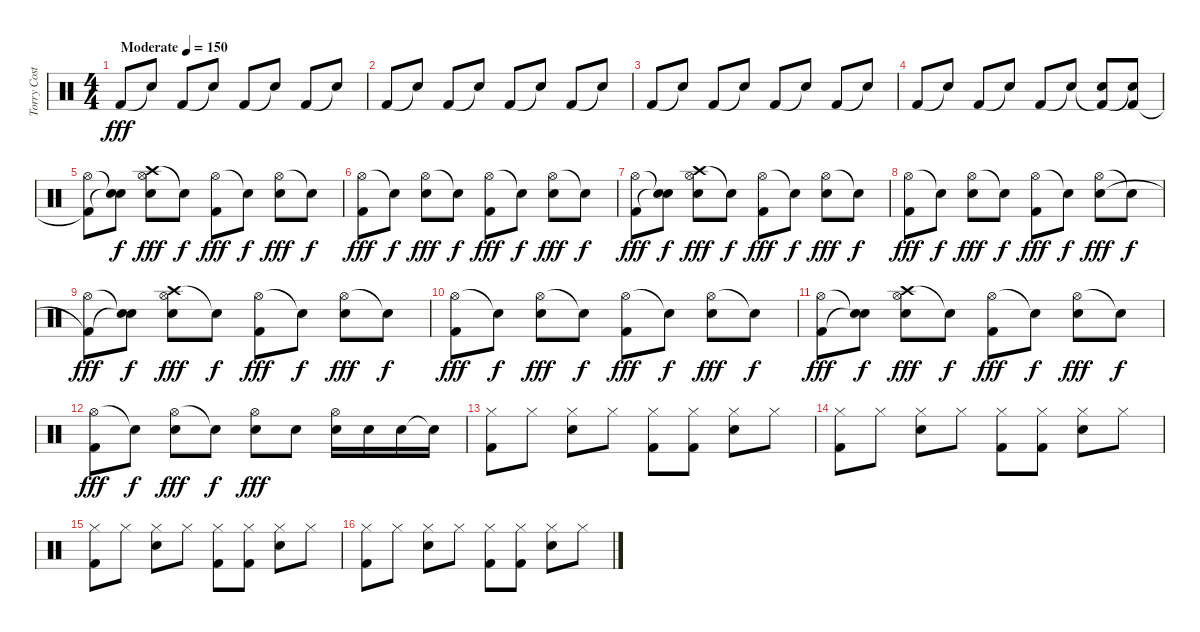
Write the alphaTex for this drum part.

\track ("Torry Costellano" "Torry Cost") {instrument percussion}
\staff {score}
\articulation defaults
\ts (4 4)
\tempo (150 "Moderate")
\clef neutral
\ks c "Kick (hit) 2".8{dy fff} "Snare (hit)"{t}.8 "Kick (hit) 2".8 "Snare (hit)"{t}.8 "Kick (hit) 2".8 "Snare (hit)"{t}.8 "Kick (hit) 2".8 "Snare (hit)"{t}.8
|
"Kick (hit) 2".8 "Snare (hit)"{t}.8 "Kick (hit) 2".8 "Snare (hit)"{t}.8 "Kick (hit) 2".8 "Snare (hit)"{t}.8 "Kick (hit) 2".8 "Snare (hit)"{t}.8 |
"Kick (hit) 2".8 "Snare (hit)"{t}.8 "Kick (hit) 2".8 "Snare (hit)"{t}.8 "Kick (hit) 2".8 "Snare (hit)"{t}.8 "Kick (hit) 2".8 "Snare (hit)"{t}.8 |
"Kick (hit) 2".8 "Snare (hit)"{t}.8 "Kick (hit) 2".8 "Snare (hit)"{t}.8 "Kick (hit) 2".8 "Snare (hit)"{t}.8 ("Kick (hit) 2"{t} "Electric Snare (hit)").8 ("Snare (hit)"{t} "Kick (hit) 2").8 |
("Hi-Hat (open)" "Kick (hit) 2"{t}).8 ("Snare (hit)"{t} "Snare (hit)"{t}).8{dy f} ("Crash high (hit)" "Hi-Hat (open)" "Electric Snare (hit)").8{dy fff} "Snare (hit)"{t}.8{dy f} ("Hi-Hat (open)" "Kick (hit) 2").8{dy fff} "Snare (hit)"{t}.8{dy f} ("Hi-Hat (open)" "Electric Snare (hit)").8{dy fff} "Snare (hit)"{t}.8{dy f} |
("Hi-Hat (open)" "Kick (hit) 2").8{dy fff} "Snare (hit)"{t}.8{dy f} ("Hi-Hat (open)" "Electric Snare (hit)").8{dy fff} "Snare (hit)"{t}.8{dy f} ("Hi-Hat (open)" "Kick (hit) 2").8{dy fff} "Snare (hit)"{t}.8{dy f} ("Hi-Hat (open)" "Electric Snare (hit)").8{dy fff} "Snare (hit)"{t}.8{dy f} |
("Hi-Hat (open)" "Kick (hit) 2").8{dy fff} ("Snare (hit)"{t} "Snare (hit)"{t}).8{dy f} ("Crash high (hit)" "Hi-Hat (open)" "Electric Snare (hit)").8{dy fff} "Snare (hit)"{t}.8{dy f} ("Hi-Hat (open)" "Kick (hit) 2").8{dy fff} "Snare (hit)"{t}.8{dy f} ("Hi-Hat (open)" "Electric Snare (hit)").8{dy fff} "Snare (hit)"{t}.8{dy f} |
("Hi-Hat (open)" "Kick (hit) 2").8{dy fff} "Snare (hit)"{t}.8{dy f} ("Hi-Hat (open)" "Electric Snare (hit)").8{dy fff} "Snare (hit)"{t}.8{dy f} ("Hi-Hat (open)" "Kick (hit) 2").8{dy fff} "Snare (hit)"{t}.8{dy f} ("Hi-Hat (open)" "Electric Snare (hit)").8{dy fff} "Snare (hit)"{t}.8{dy f} |
("Hi-Hat (open)" "Kick (hit) 2"{t}).8{dy fff} ("Snare (hit)"{t} "Snare (hit)"{t}).8{dy f} ("Crash high (hit)" "Hi-Hat (open)" "Electric Snare (hit)").8{dy fff} "Snare (hit)"{t}.8{dy f} ("Hi-Hat (open)" "Kick (hit) 2").8{dy fff} "Snare (hit)"{t}.8{dy f} ("Hi-Hat (open)" "Electric Snare (hit)").8{dy fff} "Snare (hit)"{t}.8{dy f} |
("Hi-Hat (open)" "Kick (hit) 2").8{dy fff} "Snare (hit)"{t}.8{dy f} ("Hi-Hat (open)" "Electric Snare (hit)").8{dy fff} "Snare (hit)"{t}.8{dy f} ("Hi-Hat (open)" "Kick (hit) 2").8{dy fff} "Snare (hit)"{t}.8{dy f} ("Hi-Hat (open)" "Electric Snare (hit)").8{dy fff} "Snare (hit)"{t}.8{dy f} |
("Hi-Hat (open)" "Kick (hit) 2").8{dy fff} ("Snare (hit)"{t} "Snare (hit)"{t}).8{dy f} ("Crash high (hit)" "Hi-Hat (open)" "Electric Snare (hit)").8{dy fff} "Snare (hit)"{t}.8{dy f} ("Hi-Hat (open)" "Kick (hit) 2").8{dy fff} "Snare (hit)"{t}.8{dy f} ("Hi-Hat (open)" "Electric Snare (hit)").8{dy fff} "Snare (hit)"{t}.8{dy f} |
("Hi-Hat (open)" "Kick (hit) 2").8{dy fff} "Snare (hit)"{t}.8{dy f} ("Hi-Hat (open)" "Electric Snare (hit)").8{dy fff} "Snare (hit)"{t}.8{dy f} ("Hi-Hat (open)" "Electric Snare (hit)").8{dy fff} "Electric Snare (hit)".8 ("Hi-Hat (open)" "Electric Snare (hit)").16 "Electric Snare (hit)".16 "Electric Snare (hit)".16 "Snare (hit)"{t}.16 |
("Hi-Hat (closed)" "Kick (hit) 2").8 "Hi-Hat (closed)".8 ("Hi-Hat (closed)" "Electric Snare (hit)").8 "Hi-Hat (closed)".8 ("Hi-Hat (closed)" "Kick (hit) 2").8 ("Hi-Hat (closed)" "Kick (hit) 2").8 ("Hi-Hat (closed)" "Electric Snare (hit)").8 "Hi-Hat (closed)".8 |
("Hi-Hat (closed)" "Kick (hit) 2").8 "Hi-Hat (closed)".8 ("Hi-Hat (closed)" "Electric Snare (hit)").8 "Hi-Hat (closed)".8 ("Hi-Hat (closed)" "Kick (hit) 2").8 ("Hi-Hat (closed)" "Kick (hit) 2").8 ("Hi-Hat (closed)" "Electric Snare (hit)").8 "Hi-Hat (closed)".8 |
("Hi-Hat (closed)" "Kick (hit) 2").8 "Hi-Hat (closed)".8 ("Hi-Hat (closed)" "Electric Snare (hit)").8 "Hi-Hat (closed)".8 ("Hi-Hat (closed)" "Kick (hit) 2").8 ("Hi-Hat (closed)" "Kick (hit) 2").8 ("Hi-Hat (closed)" "Electric Snare (hit)").8 "Hi-Hat (closed)".8 |
("Hi-Hat (closed)" "Kick (hit) 2").8 "Hi-Hat (closed)".8 ("Hi-Hat (closed)" "Electric Snare (hit)").8 "Hi-Hat (closed)".8 ("Hi-Hat (closed)" "Kick (hit) 2").8 ("Hi-Hat (closed)" "Kick (hit) 2").8 ("Hi-Hat (closed)" "Electric Snare (hit)").8 "Hi-Hat (closed)".8
